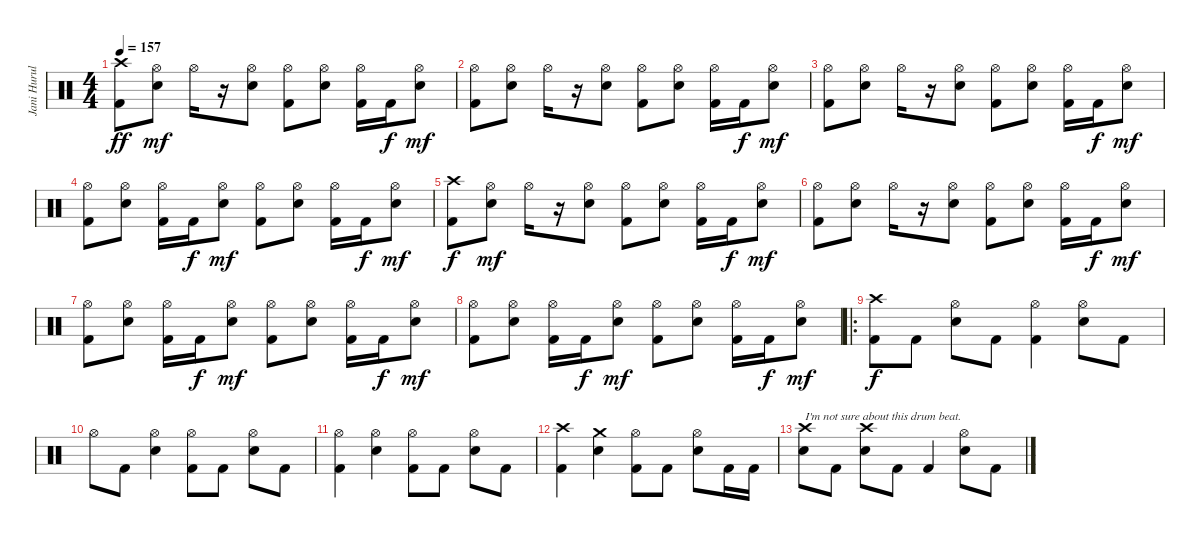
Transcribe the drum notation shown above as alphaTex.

\track ("Jani Hurula" "Jani Hurul") {instrument percussion}
\staff {score}
\articulation defaults
\ts (4 4)
\tempo 157
\clef neutral
\ks c
("Crash high (hit)" "Kick (hit) 2").8{dy ff} ("Hi-Hat (open)" "Snare (hit) 2").8{dy mf} "Hi-Hat (open)".16 r.16 ("Hi-Hat (open)" "Snare (hit) 2").8 ("Hi-Hat (open)" "Kick (hit) 2").8 ("Hi-Hat (open)" "Snare (hit) 2").8 ("Hi-Hat (open)" "Kick (hit) 2").16 "Kick (hit) 2".16{dy f} ("Hi-Hat (open)" "Snare (hit) 2").8{dy mf} |
("Hi-Hat (open)" "Kick (hit) 2").8 ("Hi-Hat (open)" "Snare (hit) 2").8 "Hi-Hat (open)".16 r.16 ("Hi-Hat (open)" "Snare (hit) 2").8 ("Hi-Hat (open)" "Kick (hit) 2").8 ("Hi-Hat (open)" "Snare (hit) 2").8 ("Hi-Hat (open)" "Kick (hit) 2").16 "Kick (hit) 2".16{dy f} ("Hi-Hat (open)" "Snare (hit) 2").8{dy mf} |
("Hi-Hat (open)" "Kick (hit) 2").8 ("Hi-Hat (open)" "Snare (hit) 2").8 "Hi-Hat (open)".16 r.16 ("Hi-Hat (open)" "Snare (hit) 2").8 ("Hi-Hat (open)" "Kick (hit) 2").8 ("Hi-Hat (open)" "Snare (hit) 2").8 ("Hi-Hat (open)" "Kick (hit) 2").16 "Kick (hit) 2".16{dy f} ("Hi-Hat (open)" "Snare (hit) 2").8{dy mf} |
("Hi-Hat (open)" "Kick (hit) 2").8 ("Hi-Hat (open)" "Snare (hit) 2").8 ("Hi-Hat (open)" "Kick (hit) 2").16 "Kick (hit) 2".16{dy f} ("Hi-Hat (open)" "Snare (hit) 2").8{dy mf} ("Hi-Hat (open)" "Kick (hit) 2").8 ("Hi-Hat (open)" "Snare (hit) 2").8 ("Hi-Hat (open)" "Kick (hit) 2").16 "Kick (hit) 2".16{dy f} ("Hi-Hat (open)" "Snare (hit) 2").8{dy mf} |
("Crash high (hit)" "Kick (hit) 2").8{dy f} ("Hi-Hat (open)" "Snare (hit) 2").8{dy mf} "Hi-Hat (open)".16 r.16 ("Hi-Hat (open)" "Snare (hit) 2").8 ("Hi-Hat (open)" "Kick (hit) 2").8 ("Hi-Hat (open)" "Snare (hit) 2").8 ("Hi-Hat (open)" "Kick (hit) 2").16 "Kick (hit) 2".16{dy f} ("Hi-Hat (open)" "Snare (hit) 2").8{dy mf} |
("Hi-Hat (open)" "Kick (hit) 2").8 ("Hi-Hat (open)" "Snare (hit) 2").8 "Hi-Hat (open)".16 r.16 ("Hi-Hat (open)" "Snare (hit) 2").8 ("Hi-Hat (open)" "Kick (hit) 2").8 ("Hi-Hat (open)" "Snare (hit) 2").8 ("Hi-Hat (open)" "Kick (hit) 2").16 "Kick (hit) 2".16{dy f} ("Hi-Hat (open)" "Snare (hit) 2").8{dy mf} |
("Hi-Hat (open)" "Kick (hit) 2").8 ("Hi-Hat (open)" "Snare (hit) 2").8 ("Hi-Hat (open)" "Kick (hit) 2").16 "Kick (hit) 2".16{dy f} ("Hi-Hat (open)" "Snare (hit) 2").8{dy mf} ("Hi-Hat (open)" "Kick (hit) 2").8 ("Hi-Hat (open)" "Snare (hit) 2").8 ("Hi-Hat (open)" "Kick (hit) 2").16 "Kick (hit) 2".16{dy f} ("Hi-Hat (open)" "Snare (hit) 2").8{dy mf} |
("Hi-Hat (open)" "Kick (hit) 2").8 ("Hi-Hat (open)" "Snare (hit) 2").8 ("Hi-Hat (open)" "Kick (hit) 2").16 "Kick (hit) 2".16{dy f} ("Hi-Hat (open)" "Snare (hit) 2").8{dy mf} ("Hi-Hat (open)" "Kick (hit) 2").8 ("Hi-Hat (open)" "Snare (hit) 2").8 ("Hi-Hat (open)" "Kick (hit) 2").16 "Kick (hit) 2".16{dy f} ("Hi-Hat (open)" "Snare (hit) 2").8{dy mf} |
\ro
("Crash high (hit)" "Kick (hit) 2").8{dy f} "Kick (hit) 2".8 ("Hi-Hat (open)" "Snare (hit) 2").8 "Kick (hit) 2".8 ("Hi-Hat (open)" "Kick (hit) 2").4 ("Hi-Hat (open)" "Snare (hit) 2").8 "Kick (hit) 2".8 |
"Hi-Hat (open)".8 "Kick (hit) 2".8 ("Hi-Hat (open)" "Snare (hit) 2").4 ("Hi-Hat (open)" "Kick (hit) 2").8 "Kick (hit) 2".8 ("Hi-Hat (open)" "Snare (hit) 2").8 "Kick (hit) 2".8 |
("Hi-Hat (open)" "Kick (hit) 2").4 ("Hi-Hat (open)" "Snare (hit) 2").4 ("Hi-Hat (open)" "Kick (hit) 2").8 "Kick (hit) 2".8 ("Hi-Hat (open)" "Snare (hit) 2").8 "Kick (hit) 2".8 |
("Crash high (hit)" "Kick (hit) 2").4 ("Crash medium (hit)" "Snare (hit) 2").4 ("Hi-Hat (open)" "Kick (hit) 2").8 "Kick (hit) 2".8 ("Hi-Hat (open)" "Snare (hit) 2").8 "Kick (hit) 2".16 "Kick (hit) 2".16 |
("Crash high (hit)" "Snare (hit) 2").8{txt "I'm not sure about this drum beat."} "Kick (hit) 2".8 ("Crash high (hit)" "Snare (hit) 2").8 "Kick (hit) 2".8 "Kick (hit) 2".4 ("Hi-Hat (open)" "Snare (hit) 2").8 "Kick (hit) 2".8
